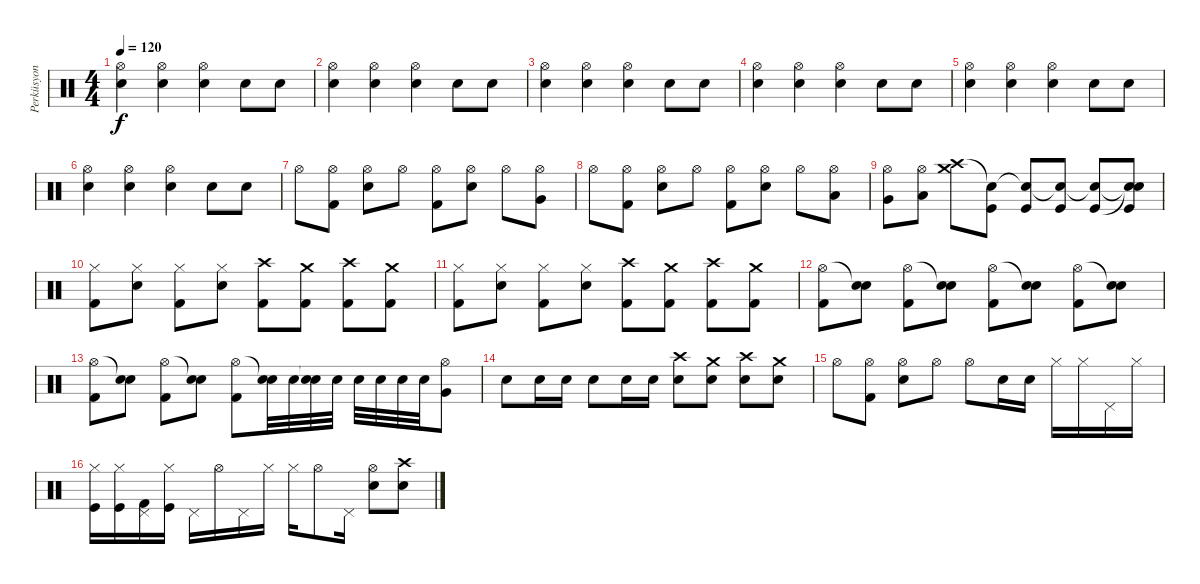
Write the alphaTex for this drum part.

\track ("Perküsyon" "Perküsyon") {instrument percussion}
\staff {score}
\articulation defaults
\ts (4 4)
\tempo 120
\clef neutral
\ks c
("Hi-Hat (open)" "Snare (hit) 2").4{dy f} ("Hi-Hat (open)" "Snare (hit) 2").4 ("Hi-Hat (open)" "Snare (hit) 2").4 "Electric Snare (hit)".8 "Electric Snare (hit)".8 |
("Hi-Hat (open)" "Snare (hit) 2").4 ("Hi-Hat (open)" "Snare (hit) 2").4 ("Hi-Hat (open)" "Snare (hit) 2").4 "Electric Snare (hit)".8 "Electric Snare (hit)".8 |
("Hi-Hat (open)" "Snare (hit) 2").4 ("Hi-Hat (open)" "Snare (hit) 2").4 ("Hi-Hat (open)" "Snare (hit) 2").4 "Electric Snare (hit)".8 "Electric Snare (hit)".8 |
("Hi-Hat (open)" "Snare (hit) 2").4 ("Hi-Hat (open)" "Snare (hit) 2").4 ("Hi-Hat (open)" "Snare (hit) 2").4 "Electric Snare (hit)".8 "Electric Snare (hit)".8 |
("Hi-Hat (open)" "Snare (hit) 2").4 ("Hi-Hat (open)" "Snare (hit) 2").4 ("Hi-Hat (open)" "Snare (hit) 2").4 "Electric Snare (hit)".8 "Electric Snare (hit)".8 |
("Hi-Hat (open)" "Snare (hit) 2").4 ("Hi-Hat (open)" "Snare (hit) 2").4 ("Hi-Hat (open)" "Snare (hit) 2").4 "Electric Snare (hit)".8 "Electric Snare (hit)".8 |
"Hi-Hat (open)".8 ("Hi-Hat (open)" "Kick (hit) 2").8 ("Hi-Hat (open)" "Electric Snare (hit)").8 "Hi-Hat (open)".8 ("Hi-Hat (open)" "Kick (hit) 2").8 ("Hi-Hat (open)" "Electric Snare (hit)").8 "Hi-Hat (open)".8 ("Hi-Hat (open)" "Very Low Tom (hit)").8 |
"Hi-Hat (open)".8 ("Hi-Hat (open)" "Kick (hit) 2").8 ("Hi-Hat (open)" "Electric Snare (hit)").8 "Hi-Hat (open)".8 ("Hi-Hat (open)" "Kick (hit) 2").8 ("Hi-Hat (open)" "Electric Snare (hit)").8 "Hi-Hat (open)".8 ("Hi-Hat (open)" "Low Tom (hit)").8 |
("Hi-Hat (open)" "Very Low Tom (hit)").8 ("Hi-Hat (open)" "Low Floor Tom (hit)").8 ("Crash high (hit)" "Crash medium (hit)").8 ("Snare (hit)"{t} "Kick (hit)").8 ("Snare (hit)"{t} "Kick (hit)").8 ("Snare (hit)"{t} "Kick (hit)").8 ("Snare (hit)"{t} "Kick (hit)").8 ("Snare (hit)"{t} "Snare (hit)"{t} "Kick (hit)").8 |
("Hi-Hat (closed)" "Kick (hit) 2").8 ("Hi-Hat (closed)" "Electric Snare (hit)").8 ("Hi-Hat (closed)" "Kick (hit) 2").8 ("Hi-Hat (closed)" "Electric Snare (hit)").8 ("Crash high (hit)" "Kick (hit) 2").8 ("Crash medium (hit)" "Kick (hit) 2").8 ("Crash high (hit)" "Kick (hit) 2").8 ("Crash medium (hit)" "Kick (hit) 2").8 |
("Hi-Hat (closed)" "Kick (hit) 2").8 ("Hi-Hat (closed)" "Electric Snare (hit)").8 ("Hi-Hat (closed)" "Kick (hit) 2").8 ("Hi-Hat (closed)" "Electric Snare (hit)").8 ("Crash high (hit)" "Kick (hit) 2").8 ("Crash medium (hit)" "Kick (hit) 2").8 ("Crash high (hit)" "Kick (hit) 2").8 ("Crash medium (hit)" "Kick (hit) 2").8 |
("Hi-Hat (open)" "Kick (hit) 2").8 ("Snare (hit)"{t} "Electric Snare (hit)").8 ("Hi-Hat (open)" "Kick (hit) 2").8 ("Snare (hit)"{t} "Electric Snare (hit)").8 ("Hi-Hat (open)" "Kick (hit) 2").8 ("Snare (hit)"{t} "Electric Snare (hit)").8 ("Hi-Hat (open)" "Kick (hit) 2").8 ("Snare (hit)"{t} "Electric Snare (hit)").8 |
("Hi-Hat (open)" "Kick (hit) 2").8 ("Snare (hit)"{t} "Electric Snare (hit)").8 ("Hi-Hat (open)" "Kick (hit) 2").8 ("Snare (hit)"{t} "Electric Snare (hit)").8 ("Hi-Hat (open)" "Kick (hit) 2").8 ("Snare (hit)"{t} "Electric Snare (hit)").32 "Electric Snare (hit)".32 ("Snare (hit)"{t} "Electric Snare (hit)").32 "Electric Snare (hit)".32 "Electric Snare (hit)".32 "Electric Snare (hit)".32 "Electric Snare (hit)".32 "Electric Snare (hit)".32 ("Hi-Hat (open)" "Very Low Tom (hit)").8 |
"Electric Snare (hit)".8 "Electric Snare (hit)".16 "Electric Snare (hit)".16 "Electric Snare (hit)".8 "Electric Snare (hit)".16 "Electric Snare (hit)".16 ("Crash high (hit)" "Snare (hit) 2").8 ("Crash medium (hit)" "Snare (hit) 2").8 ("Crash high (hit)" "Snare (hit) 2").8 ("Crash medium (hit)" "Snare (hit) 2").8 |
"Hi-Hat (open)".8 ("Hi-Hat (open)" "Kick (hit) 2").8 ("Hi-Hat (open)" "Electric Snare (hit)").8 "Hi-Hat (open)".8 "Hi-Hat (open)".8 "Electric Snare (hit)".16 "Electric Snare (hit)".16 "Hi-Hat (closed)".16 "Hi-Hat (closed)".16 "Pedal Hi-Hat (hit)".16 "Hi-Hat (closed)".16 |
("Hi-Hat (closed)" "Kick (hit)").16 ("Hi-Hat (closed)" "Kick (hit)").16 ("Pedal Hi-Hat (hit)" "Kick (hit) 2").16 ("Hi-Hat (closed)" "Kick (hit)").16 "Pedal Hi-Hat (hit)".16 "Hi-Hat (open)".16 "Pedal Hi-Hat (hit)".16 "Hi-Hat (closed)".16 "Hi-Hat (closed)".16 "Hi-Hat (open)".8 "Pedal Hi-Hat (hit)".16 ("Hi-Hat (open)" "Electric Snare (hit)").8 ("Crash high (hit)" "Snare (hit) 2").8
